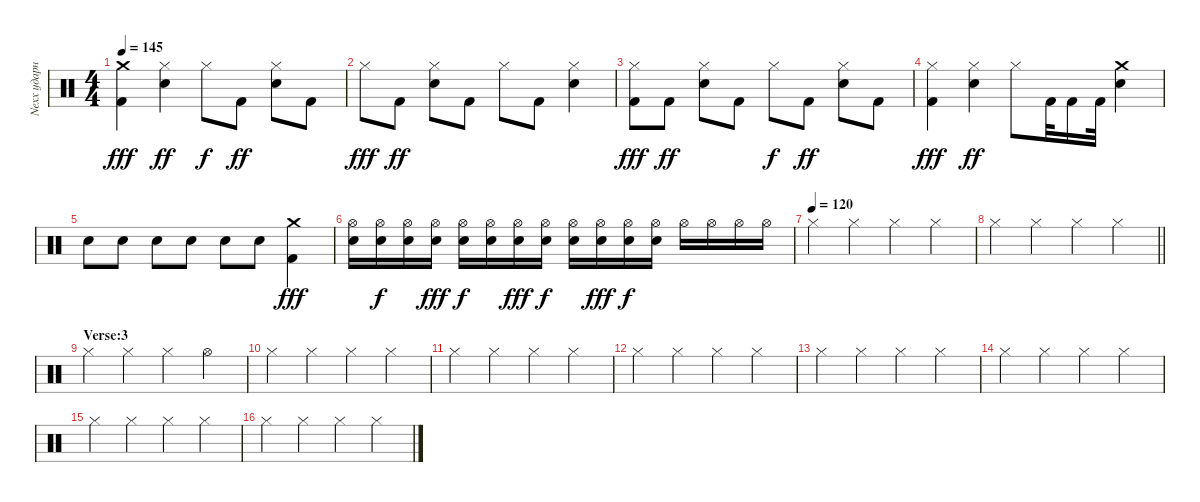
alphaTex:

\track ("Nexx ударные" "Nexx ударн") {instrument percussion}
\staff {score}
\articulation defaults
\ts (4 4)
\tempo 145
\clef neutral
\ks c
("Kick (hit) 2" "Crash medium (hit)").4{dy fff} ("Hi-Hat (closed)" "Electric Snare (hit)").4{dy ff} "Hi-Hat (closed)".8{dy f} "Kick (hit) 2".8{dy ff} ("Hi-Hat (closed)" "Electric Snare (hit)").8 "Kick (hit) 2".8 |
"Hi-Hat (closed)".8{dy fff} "Kick (hit) 2".8{dy ff} ("Hi-Hat (closed)" "Electric Snare (hit)").8 "Kick (hit) 2".8 "Hi-Hat (closed)".8 "Kick (hit) 2".8 ("Hi-Hat (closed)" "Electric Snare (hit)").4 |
("Kick (hit) 2" "Hi-Hat (closed)").8{dy fff} "Kick (hit) 2".8{dy ff} ("Hi-Hat (closed)" "Electric Snare (hit)").8 "Kick (hit) 2".8 "Hi-Hat (closed)".8{dy f} "Kick (hit) 2".8{dy ff} ("Hi-Hat (closed)" "Electric Snare (hit)").8 "Kick (hit) 2".8 |
("Kick (hit) 2" "Hi-Hat (closed)").4{dy fff} ("Hi-Hat (closed)" "Electric Snare (hit)").4{dy ff} "Hi-Hat (closed)".8 "Kick (hit) 2".32 "Kick (hit) 2".16 "Kick (hit) 2".32 ("Crash medium (hit)" "Electric Snare (hit)").4 |
"Electric Snare (hit)".8 "Electric Snare (hit)".8 "Electric Snare (hit)".8 "Electric Snare (hit)".8 "Electric Snare (hit)".8 "Electric Snare (hit)".8 ("Kick (hit) 2" "Crash medium (hit)").4{dy fff} |
("Hi-Hat (open)" "Snare (hit)"{x}).16 ("Hi-Hat (open)" "Snare (hit)"{x}).16{dy f} ("Hi-Hat (open)" "Snare (hit)"{x}).16 ("Hi-Hat (open)" "Snare (hit)"{x}).16{dy fff} ("Hi-Hat (open)" "Snare (hit)"{x}).16{dy f} ("Hi-Hat (open)" "Snare (hit)"{x}).16 ("Hi-Hat (open)" "Snare (hit)"{x}).16{dy fff} ("Hi-Hat (open)" "Snare (hit)"{x}).16{dy f} ("Hi-Hat (open)" "Snare (hit)"{x}).16 ("Hi-Hat (open)" "Snare (hit)"{x}).16{dy fff} ("Hi-Hat (open)" "Snare (hit)"{x}).16{dy f} ("Hi-Hat (open)" "Snare (hit)"{x}).16 "Hi-Hat (open)".16 "Hi-Hat (open)".16 "Hi-Hat (open)".16 "Hi-Hat (open)".16 |
\tempo (120)
"Hi-Hat (closed)".4 "Hi-Hat (closed)".4 "Hi-Hat (closed)".4 "Hi-Hat (closed)".4 |
\barLineRight lightlight "Hi-Hat (closed)".4 "Hi-Hat (closed)".4 "Hi-Hat (closed)".4 "Hi-Hat (closed)".4
|
\section ("" "Verse:3")
"Hi-Hat (closed)".4 "Hi-Hat (closed)".4 "Hi-Hat (closed)".4 "Hi-Hat (open)".4 |
"Hi-Hat (closed)".4 "Hi-Hat (closed)".4 "Hi-Hat (closed)".4 "Hi-Hat (closed)".4 |
"Hi-Hat (closed)".4 "Hi-Hat (closed)".4 "Hi-Hat (closed)".4 "Hi-Hat (closed)".4 |
"Hi-Hat (closed)".4 "Hi-Hat (closed)".4 "Hi-Hat (closed)".4 "Hi-Hat (closed)".4 |
"Hi-Hat (closed)".4 "Hi-Hat (closed)".4 "Hi-Hat (closed)".4 "Hi-Hat (closed)".4 |
"Hi-Hat (closed)".4 "Hi-Hat (closed)".4 "Hi-Hat (closed)".4 "Hi-Hat (closed)".4 |
"Hi-Hat (closed)".4 "Hi-Hat (closed)".4 "Hi-Hat (closed)".4 "Hi-Hat (closed)".4 |
"Hi-Hat (closed)".4 "Hi-Hat (closed)".4 "Hi-Hat (closed)".4 "Hi-Hat (closed)".4
